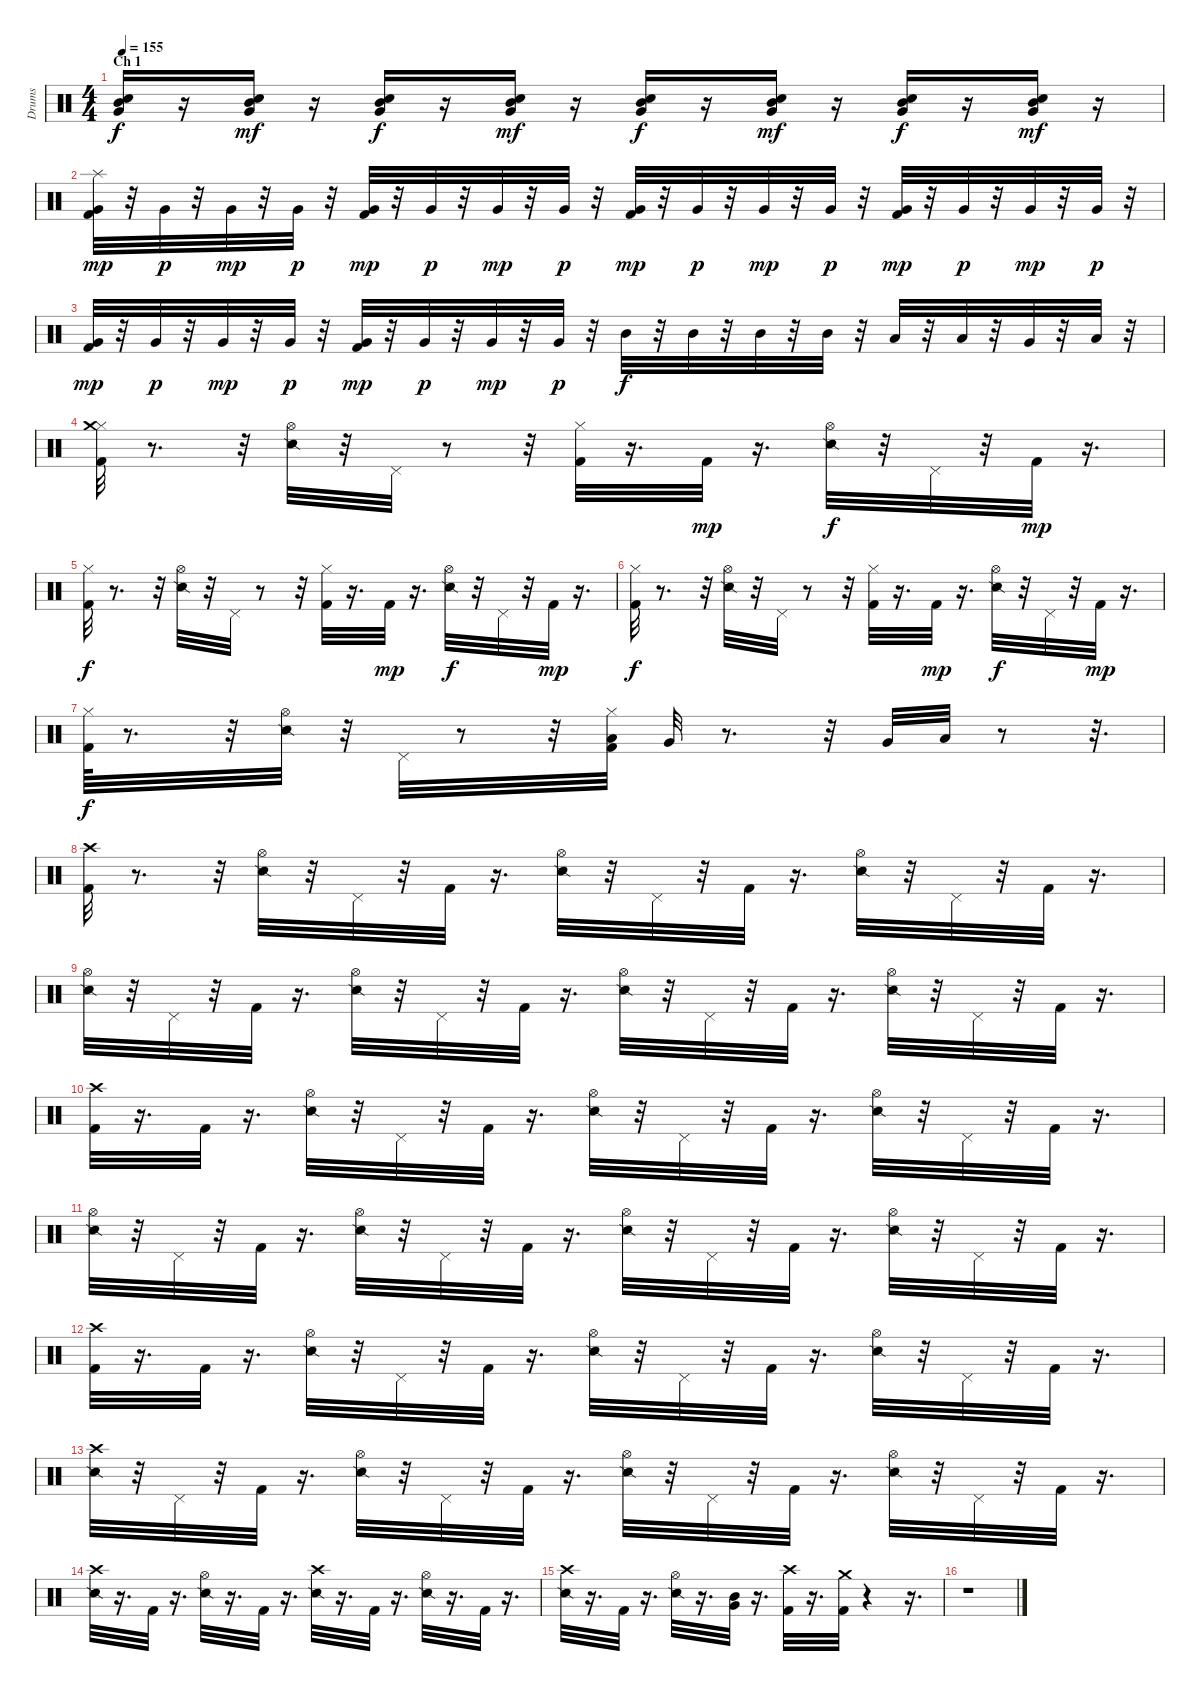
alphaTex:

\track ("Drums" "Drums") {instrument percussion}
\staff {score}
\articulation defaults
\ts (4 4)
\section ("" "Ch 1")
\tempo 155
\clef neutral
\ks c
("Snare (hit)" "Mid Tom (hit)" "Very Low Tom (hit)").16{dy f} r.16 ("Snare (hit)" "Very Low Tom (hit)" "Mid Tom (hit)").16{dy mf} r.16 ("Snare (hit)" "Mid Tom (hit)" "Very Low Tom (hit)").16{dy f} r.16 ("Snare (hit)" "Very Low Tom (hit)" "Mid Tom (hit)").16{dy mf} r.16 ("Snare (hit)" "Mid Tom (hit)" "Very Low Tom (hit)").16{dy f} r.16 ("Snare (hit)" "Very Low Tom (hit)" "Mid Tom (hit)").16{dy mf} r.16 ("Snare (hit)" "Mid Tom (hit)" "Very Low Tom (hit)").16{dy f} r.16 ("Snare (hit)" "Very Low Tom (hit)" "Mid Tom (hit)").16{dy mf} r.16 |
("Very Low Tom (hit)" "Kick (hit) 2" "Splash (hit)").32{dy mp} r.32 "Very Low Tom (hit)".32{dy p} r.32 "Very Low Tom (hit)".32{dy mp} r.32 "Very Low Tom (hit)".32{dy p} r.32 ("Kick (hit) 2" "Very Low Tom (hit)").32{dy mp} r.32 "Very Low Tom (hit)".32{dy p} r.32 "Very Low Tom (hit)".32{dy mp} r.32 "Very Low Tom (hit)".32{dy p} r.32 ("Kick (hit) 2" "Very Low Tom (hit)").32{dy mp} r.32 "Very Low Tom (hit)".32{dy p} r.32 "Very Low Tom (hit)".32{dy mp} r.32 "Very Low Tom (hit)".32{dy p} r.32 ("Kick (hit) 2" "Very Low Tom (hit)").32{dy mp} r.32 "Very Low Tom (hit)".32{dy p} r.32 "Very Low Tom (hit)".32{dy mp} r.32 "Very Low Tom (hit)".32{dy p} r.32 |
("Very Low Tom (hit)" "Kick (hit) 2").32{dy mp} r.32 "Very Low Tom (hit)".32{dy p} r.32 "Very Low Tom (hit)".32{dy mp} r.32 "Very Low Tom (hit)".32{dy p} r.32 ("Kick (hit) 2" "Very Low Tom (hit)").32{dy mp} r.32 "Very Low Tom (hit)".32{dy p} r.32 "Very Low Tom (hit)".32{dy mp} r.32 "Very Low Tom (hit)".32{dy p} r.32 "Mid Tom (hit)".32{dy f} r.32 "Mid Tom (hit)".32 r.32 "Mid Tom (hit)".32 r.32 "Mid Tom (hit)".32 r.32 "Low Tom (hit)".32 r.32 "Low Tom (hit)".32 r.32 "Very Low Tom (hit)".32 r.32 "Low Floor Tom (hit)".32 r.32 |
("Hi-Hat (closed)" "Kick (hit) 2" "Crash medium (hit)").32 r.8{d} r.32 ("Hi-Hat (open)" "Snare (side stick) 2").32 r.32 "Pedal Hi-Hat (hit)".32 r.8 r.32 ("Hi-Hat (closed)" "Kick (hit) 2").32 r.16{d} "Kick (hit) 2".32{dy mp} r.16{d} ("Hi-Hat (open)" "Snare (side stick) 2").32{dy f} r.32 "Pedal Hi-Hat (hit)".32 r.32 "Kick (hit) 2".32{dy mp} r.16{d} |
("Hi-Hat (closed)" "Kick (hit) 2").32{dy f} r.8{d} r.32 ("Hi-Hat (open)" "Snare (side stick) 2").32 r.32 "Pedal Hi-Hat (hit)".32 r.8 r.32 ("Hi-Hat (closed)" "Kick (hit) 2").32 r.16{d} "Kick (hit) 2".32{dy mp} r.16{d} ("Hi-Hat (open)" "Snare (side stick) 2").32{dy f} r.32 "Pedal Hi-Hat (hit)".32 r.32 "Kick (hit) 2".32{dy mp} r.16{d} |
("Hi-Hat (closed)" "Kick (hit) 2").32{dy f} r.8{d} r.32 ("Hi-Hat (open)" "Snare (side stick) 2").32 r.32 "Pedal Hi-Hat (hit)".32 r.8 r.32 ("Hi-Hat (closed)" "Kick (hit) 2").32 r.16{d} "Kick (hit) 2".32{dy mp} r.16{d} ("Hi-Hat (open)" "Snare (side stick) 2").32{dy f} r.32 "Pedal Hi-Hat (hit)".32 r.32 "Kick (hit) 2".32{dy mp} r.16{d} |
("Hi-Hat (closed)" "Kick (hit) 2").64{dy f} r.8{d} r.32 ("Hi-Hat (open)" "Snare (side stick) 2").32 r.32 "Pedal Hi-Hat (hit)".32 r.8 r.32 ("Low Tom (hit)" "Hi-Hat (closed)" "Kick (hit) 2").32 "Very Low Tom (hit)".32 r.8{d} r.32 "Very Low Tom (hit)".32 "Low Floor Tom (hit)".32 r.8 r.32{d} |
("Kick (hit) 2" "Crash high (hit)").32 r.8{d} r.32 ("Hi-Hat (open)" "Snare (side stick) 2").32 r.32 "Pedal Hi-Hat (hit)".32 r.32 "Kick (hit) 2".32 r.16{d} ("Hi-Hat (open)" "Snare (side stick) 2").32 r.32 "Pedal Hi-Hat (hit)".32 r.32 "Kick (hit) 2".32 r.16{d} ("Hi-Hat (open)" "Snare (side stick) 2").32 r.32 "Pedal Hi-Hat (hit)".32 r.32 "Kick (hit) 2".32 r.16{d} |
("Hi-Hat (open)" "Snare (side stick) 2").32 r.32 "Pedal Hi-Hat (hit)".32 r.32 "Kick (hit) 2".32 r.16{d} ("Hi-Hat (open)" "Snare (side stick) 2").32 r.32 "Pedal Hi-Hat (hit)".32 r.32 "Kick (hit) 2".32 r.16{d} ("Hi-Hat (open)" "Snare (side stick) 2").32 r.32 "Pedal Hi-Hat (hit)".32 r.32 "Kick (hit) 2".32 r.16{d} ("Hi-Hat (open)" "Snare (side stick) 2").32 r.32 "Pedal Hi-Hat (hit)".32 r.32 "Kick (hit) 2".32 r.16{d} |
("Kick (hit) 2" "Crash high (hit)").32 r.16{d} "Kick (hit) 2".32 r.16{d} ("Hi-Hat (open)" "Snare (side stick) 2").32 r.32 "Pedal Hi-Hat (hit)".32 r.32 "Kick (hit) 2".32 r.16{d} ("Hi-Hat (open)" "Snare (side stick) 2").32 r.32 "Pedal Hi-Hat (hit)".32 r.32 "Kick (hit) 2".32 r.16{d} ("Hi-Hat (open)" "Snare (side stick) 2").32 r.32 "Pedal Hi-Hat (hit)".32 r.32 "Kick (hit) 2".32 r.16{d} |
("Hi-Hat (open)" "Snare (side stick) 2").32 r.32 "Pedal Hi-Hat (hit)".32 r.32 "Kick (hit) 2".32 r.16{d} ("Hi-Hat (open)" "Snare (side stick) 2").32 r.32 "Pedal Hi-Hat (hit)".32 r.32 "Kick (hit) 2".32 r.16{d} ("Hi-Hat (open)" "Snare (side stick) 2").32 r.32 "Pedal Hi-Hat (hit)".32 r.32 "Kick (hit) 2".32 r.16{d} ("Hi-Hat (open)" "Snare (side stick) 2").32 r.32 "Pedal Hi-Hat (hit)".32 r.32 "Kick (hit) 2".32 r.16{d} |
("Kick (hit) 2" "Crash high (hit)").32 r.16{d} "Kick (hit) 2".32 r.16{d} ("Hi-Hat (open)" "Snare (side stick) 2").32 r.32 "Pedal Hi-Hat (hit)".32 r.32 "Kick (hit) 2".32 r.16{d} ("Hi-Hat (open)" "Snare (side stick) 2").32 r.32 "Pedal Hi-Hat (hit)".32 r.32 "Kick (hit) 2".32 r.16{d} ("Hi-Hat (open)" "Snare (side stick) 2").32 r.32 "Pedal Hi-Hat (hit)".32 r.32 "Kick (hit) 2".32 r.16{d} |
("Crash high (hit)" "Snare (side stick) 2").32 r.32 "Pedal Hi-Hat (hit)".32 r.32 "Kick (hit) 2".32 r.16{d} ("Hi-Hat (open)" "Snare (side stick) 2").32 r.32 "Pedal Hi-Hat (hit)".32 r.32 "Kick (hit) 2".32 r.16{d} ("Hi-Hat (open)" "Snare (side stick) 2").32 r.32 "Pedal Hi-Hat (hit)".32 r.32 "Kick (hit) 2".32 r.16{d} ("Hi-Hat (open)" "Snare (side stick) 2").32 r.32 "Pedal Hi-Hat (hit)".32 r.32 "Kick (hit) 2".32 r.16{d} |
("Snare (side stick) 2" "Crash high (hit)").32 r.16{d} "Kick (hit) 2".32 r.16{d} ("Hi-Hat (open)" "Snare (side stick) 2").32 r.16{d} "Kick (hit) 2".32 r.16{d} ("Crash high (hit)" "Snare (side stick) 2").32 r.16{d} "Kick (hit) 2".32 r.16{d} ("Hi-Hat (open)" "Snare (side stick) 2").32 r.16{d} "Kick (hit) 2".32 r.16{d} |
("Snare (side stick) 2" "Crash high (hit)").32 r.16{d} "Kick (hit) 2".32 r.16{d} ("Snare (side stick) 2" "Hi-Hat (open)").32 r.16{d} ("Mid Tom (hit)" "Very Low Tom (hit)").32 r.16{d} ("Crash high (hit)" "Kick (hit) 2").32 r.16{d} ("Crash medium (hit)" "Kick (hit) 2").32 r.4 r.16{d} |
r.1
